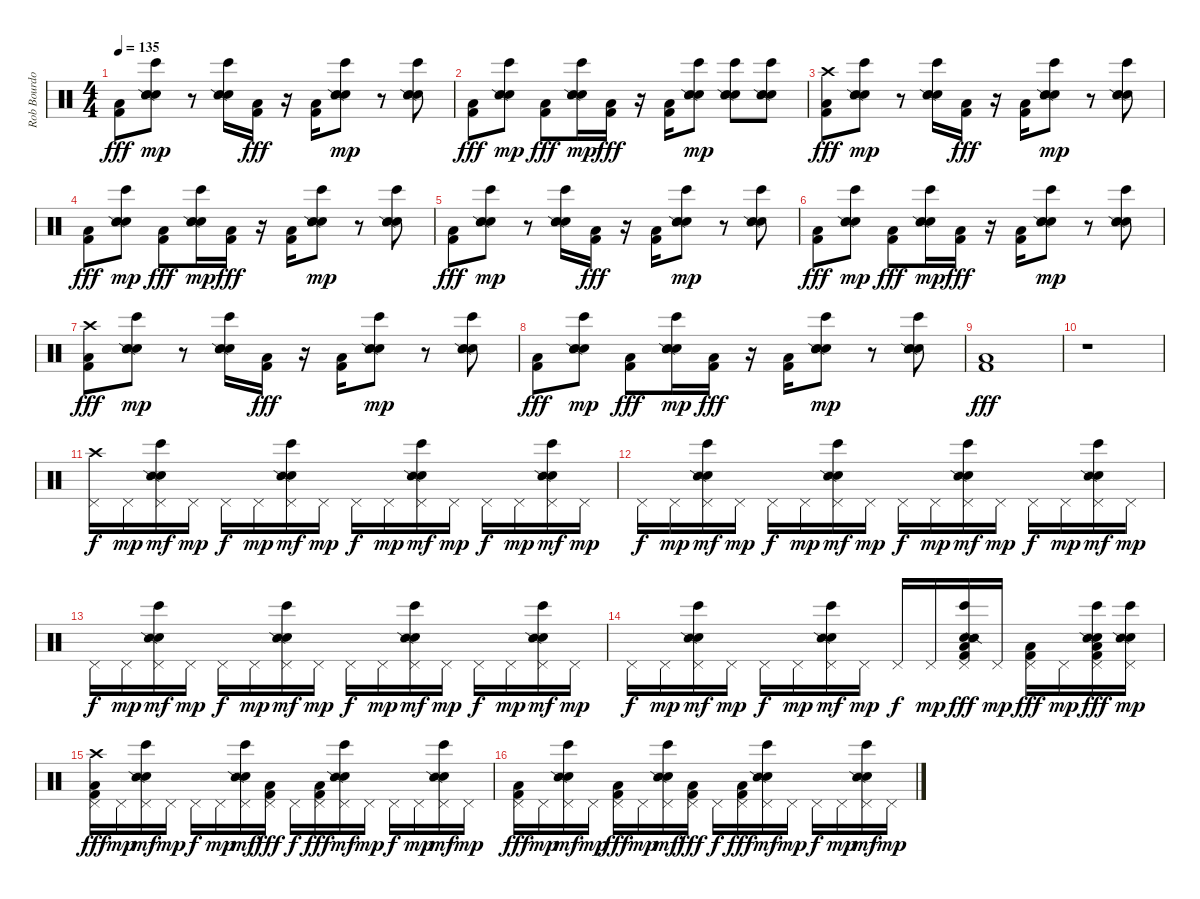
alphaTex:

\track ("Rob Bourdon - Beats & Drums" "Rob Bourdo") {instrument percussion}
\staff {score}
\articulation defaults
\ts (4 4)
\tempo 135
\clef neutral
\ks c
("Low Floor Tom (hit)" "Kick (hit) 2").8{dy fff} ("Bongo High (hit)" "Electric Snare (hit)" "Snare (side stick) 2" "Hand Clap (hit)").8{dy mp} r.8 ("Bongo High (hit)" "Electric Snare (hit)" "Snare (side stick) 2" "Hand Clap (hit)").16 ("Low Floor Tom (hit)" "Kick (hit) 2").16{dy fff} r.16 ("Low Floor Tom (hit)" "Kick (hit) 2").16 ("Bongo High (hit)" "Electric Snare (hit)" "Snare (side stick) 2" "Hand Clap (hit)").8{dy mp} r.8 ("Bongo High (hit)" "Electric Snare (hit)" "Snare (side stick) 2" "Hand Clap (hit)").8 |
("Low Floor Tom (hit)" "Kick (hit) 2").8{dy fff} ("Bongo High (hit)" "Electric Snare (hit)" "Snare (side stick) 2" "Hand Clap (hit)").8{dy mp} ("Low Floor Tom (hit)" "Kick (hit) 2").8{dy fff} ("Bongo High (hit)" "Electric Snare (hit)" "Snare (side stick) 2" "Hand Clap (hit)").16{dy mp} ("Low Floor Tom (hit)" "Kick (hit) 2").16{dy fff} r.16 ("Low Floor Tom (hit)" "Kick (hit) 2").16 ("Bongo High (hit)" "Electric Snare (hit)" "Snare (side stick) 2" "Hand Clap (hit)").8{dy mp} ("Bongo High (hit)" "Electric Snare (hit)" "Snare (side stick) 2" "Hand Clap (hit)").8 ("Bongo High (hit)" "Electric Snare (hit)" "Snare (side stick) 2" "Hand Clap (hit)").8 |
("Low Floor Tom (hit)" "Crash high (hit)" "Kick (hit) 2").8{dy fff} ("Bongo High (hit)" "Electric Snare (hit)" "Snare (side stick) 2" "Hand Clap (hit)").8{dy mp} r.8 ("Bongo High (hit)" "Electric Snare (hit)" "Snare (side stick) 2" "Hand Clap (hit)").16 ("Low Floor Tom (hit)" "Kick (hit) 2").16{dy fff} r.16 ("Low Floor Tom (hit)" "Kick (hit) 2").16 ("Bongo High (hit)" "Electric Snare (hit)" "Snare (side stick) 2" "Hand Clap (hit)").8{dy mp} r.8 ("Bongo High (hit)" "Electric Snare (hit)" "Snare (side stick) 2" "Hand Clap (hit)").8 |
("Low Floor Tom (hit)" "Kick (hit) 2").8{dy fff} ("Bongo High (hit)" "Electric Snare (hit)" "Snare (side stick) 2" "Hand Clap (hit)").8{dy mp} ("Low Floor Tom (hit)" "Kick (hit) 2").8{dy fff} ("Bongo High (hit)" "Electric Snare (hit)" "Snare (side stick) 2" "Hand Clap (hit)").16{dy mp} ("Low Floor Tom (hit)" "Kick (hit) 2").16{dy fff} r.16 ("Low Floor Tom (hit)" "Kick (hit) 2").16 ("Bongo High (hit)" "Electric Snare (hit)" "Snare (side stick) 2" "Hand Clap (hit)").8{dy mp} r.8 ("Bongo High (hit)" "Electric Snare (hit)" "Snare (side stick) 2" "Hand Clap (hit)").8 |
("Low Floor Tom (hit)" "Kick (hit) 2").8{dy fff} ("Bongo High (hit)" "Electric Snare (hit)" "Snare (side stick) 2" "Hand Clap (hit)").8{dy mp} r.8 ("Bongo High (hit)" "Electric Snare (hit)" "Snare (side stick) 2" "Hand Clap (hit)").16 ("Low Floor Tom (hit)" "Kick (hit) 2").16{dy fff} r.16 ("Low Floor Tom (hit)" "Kick (hit) 2").16 ("Bongo High (hit)" "Electric Snare (hit)" "Snare (side stick) 2" "Hand Clap (hit)").8{dy mp} r.8 ("Bongo High (hit)" "Electric Snare (hit)" "Snare (side stick) 2" "Hand Clap (hit)").8 |
("Low Floor Tom (hit)" "Kick (hit) 2").8{dy fff} ("Bongo High (hit)" "Electric Snare (hit)" "Snare (side stick) 2" "Hand Clap (hit)").8{dy mp} ("Low Floor Tom (hit)" "Kick (hit) 2").8{dy fff} ("Bongo High (hit)" "Electric Snare (hit)" "Snare (side stick) 2" "Hand Clap (hit)").16{dy mp} ("Low Floor Tom (hit)" "Kick (hit) 2").16{dy fff} r.16 ("Low Floor Tom (hit)" "Kick (hit) 2").16 ("Bongo High (hit)" "Electric Snare (hit)" "Snare (side stick) 2" "Hand Clap (hit)").8{dy mp} r.8 ("Bongo High (hit)" "Electric Snare (hit)" "Snare (side stick) 2" "Hand Clap (hit)").8 |
("Low Floor Tom (hit)" "Crash high (hit)" "Kick (hit) 2").8{dy fff} ("Bongo High (hit)" "Electric Snare (hit)" "Snare (side stick) 2" "Hand Clap (hit)").8{dy mp} r.8 ("Bongo High (hit)" "Electric Snare (hit)" "Snare (side stick) 2" "Hand Clap (hit)").16 ("Low Floor Tom (hit)" "Kick (hit) 2").16{dy fff} r.16 ("Low Floor Tom (hit)" "Kick (hit) 2").16 ("Bongo High (hit)" "Electric Snare (hit)" "Snare (side stick) 2" "Hand Clap (hit)").8{dy mp} r.8 ("Bongo High (hit)" "Electric Snare (hit)" "Snare (side stick) 2" "Hand Clap (hit)").8 |
("Low Floor Tom (hit)" "Kick (hit) 2").8{dy fff} ("Bongo High (hit)" "Electric Snare (hit)" "Snare (side stick) 2" "Hand Clap (hit)").8{dy mp} ("Low Floor Tom (hit)" "Kick (hit) 2").8{dy fff} ("Bongo High (hit)" "Electric Snare (hit)" "Snare (side stick) 2" "Hand Clap (hit)").16{dy mp} ("Low Floor Tom (hit)" "Kick (hit) 2").16{dy fff} r.16 ("Low Floor Tom (hit)" "Kick (hit) 2").16 ("Bongo High (hit)" "Electric Snare (hit)" "Snare (side stick) 2" "Hand Clap (hit)").8{dy mp} r.8 ("Bongo High (hit)" "Electric Snare (hit)" "Snare (side stick) 2" "Hand Clap (hit)").8 |
("Low Floor Tom (hit)" "Kick (hit) 2").1{dy fff} |
r.1 |
("Crash high (hit)" "Pedal Hi-Hat (hit)").16{dy f} "Pedal Hi-Hat (hit)".16{dy mp} ("Bongo High (hit)" "Electric Snare (hit)" "Snare (side stick) 2" "Pedal Hi-Hat (hit)").16{dy mf} "Pedal Hi-Hat (hit)".16{dy mp} "Pedal Hi-Hat (hit)".16{dy f} "Pedal Hi-Hat (hit)".16{dy mp} ("Bongo High (hit)" "Electric Snare (hit)" "Snare (side stick) 2" "Pedal Hi-Hat (hit)").16{dy mf} "Pedal Hi-Hat (hit)".16{dy mp} "Pedal Hi-Hat (hit)".16{dy f} "Pedal Hi-Hat (hit)".16{dy mp} ("Bongo High (hit)" "Electric Snare (hit)" "Snare (side stick) 2" "Pedal Hi-Hat (hit)").16{dy mf} "Pedal Hi-Hat (hit)".16{dy mp} "Pedal Hi-Hat (hit)".16{dy f} "Pedal Hi-Hat (hit)".16{dy mp} ("Bongo High (hit)" "Electric Snare (hit)" "Snare (side stick) 2" "Pedal Hi-Hat (hit)").16{dy mf} "Pedal Hi-Hat (hit)".16{dy mp} |
"Pedal Hi-Hat (hit)".16{dy f} "Pedal Hi-Hat (hit)".16{dy mp} ("Bongo High (hit)" "Electric Snare (hit)" "Snare (side stick) 2" "Pedal Hi-Hat (hit)").16{dy mf} "Pedal Hi-Hat (hit)".16{dy mp} "Pedal Hi-Hat (hit)".16{dy f} "Pedal Hi-Hat (hit)".16{dy mp} ("Bongo High (hit)" "Electric Snare (hit)" "Snare (side stick) 2" "Pedal Hi-Hat (hit)").16{dy mf} "Pedal Hi-Hat (hit)".16{dy mp} "Pedal Hi-Hat (hit)".16{dy f} "Pedal Hi-Hat (hit)".16{dy mp} ("Bongo High (hit)" "Electric Snare (hit)" "Snare (side stick) 2" "Pedal Hi-Hat (hit)").16{dy mf} "Pedal Hi-Hat (hit)".16{dy mp} "Pedal Hi-Hat (hit)".16{dy f} "Pedal Hi-Hat (hit)".16{dy mp} ("Bongo High (hit)" "Electric Snare (hit)" "Snare (side stick) 2" "Pedal Hi-Hat (hit)").16{dy mf} "Pedal Hi-Hat (hit)".16{dy mp} |
"Pedal Hi-Hat (hit)".16{dy f} "Pedal Hi-Hat (hit)".16{dy mp} ("Bongo High (hit)" "Electric Snare (hit)" "Snare (side stick) 2" "Pedal Hi-Hat (hit)").16{dy mf} "Pedal Hi-Hat (hit)".16{dy mp} "Pedal Hi-Hat (hit)".16{dy f} "Pedal Hi-Hat (hit)".16{dy mp} ("Bongo High (hit)" "Electric Snare (hit)" "Snare (side stick) 2" "Pedal Hi-Hat (hit)").16{dy mf} "Pedal Hi-Hat (hit)".16{dy mp} "Pedal Hi-Hat (hit)".16{dy f} "Pedal Hi-Hat (hit)".16{dy mp} ("Bongo High (hit)" "Electric Snare (hit)" "Snare (side stick) 2" "Pedal Hi-Hat (hit)").16{dy mf} "Pedal Hi-Hat (hit)".16{dy mp} "Pedal Hi-Hat (hit)".16{dy f} "Pedal Hi-Hat (hit)".16{dy mp} ("Bongo High (hit)" "Electric Snare (hit)" "Snare (side stick) 2" "Pedal Hi-Hat (hit)").16{dy mf} "Pedal Hi-Hat (hit)".16{dy mp} |
"Pedal Hi-Hat (hit)".16{dy f} "Pedal Hi-Hat (hit)".16{dy mp} ("Bongo High (hit)" "Electric Snare (hit)" "Snare (side stick) 2" "Pedal Hi-Hat (hit)").16{dy mf} "Pedal Hi-Hat (hit)".16{dy mp} "Pedal Hi-Hat (hit)".16{dy f} "Pedal Hi-Hat (hit)".16{dy mp} ("Bongo High (hit)" "Electric Snare (hit)" "Snare (side stick) 2" "Pedal Hi-Hat (hit)").16{dy mf} "Pedal Hi-Hat (hit)".16{dy mp} "Pedal Hi-Hat (hit)".16{dy f} "Pedal Hi-Hat (hit)".16{dy mp} ("Low Floor Tom (hit)" "Bongo High (hit)" "Electric Snare (hit)" "Snare (side stick) 2" "Pedal Hi-Hat (hit)" "Kick (hit) 2").16{dy fff} "Pedal Hi-Hat (hit)".16{dy mp} ("Low Floor Tom (hit)" "Pedal Hi-Hat (hit)" "Kick (hit) 2").16{dy fff} "Pedal Hi-Hat (hit)".16{dy mp} ("Low Floor Tom (hit)" "Bongo High (hit)" "Electric Snare (hit)" "Snare (side stick) 2" "Pedal Hi-Hat (hit)" "Kick (hit) 2").16{dy fff} ("Bongo High (hit)" "Electric Snare (hit)" "Snare (side stick) 2" "Pedal Hi-Hat (hit)").16{dy mp} |
("Crash high (hit)" "Low Floor Tom (hit)" "Pedal Hi-Hat (hit)" "Kick (hit) 2").16{dy fff} "Pedal Hi-Hat (hit)".16{dy mp} ("Bongo High (hit)" "Electric Snare (hit)" "Snare (side stick) 2" "Pedal Hi-Hat (hit)").16{dy mf} "Pedal Hi-Hat (hit)".16{dy mp} "Pedal Hi-Hat (hit)".16{dy f} "Pedal Hi-Hat (hit)".16{dy mp} ("Bongo High (hit)" "Electric Snare (hit)" "Snare (side stick) 2" "Pedal Hi-Hat (hit)").16{dy mf} ("Low Floor Tom (hit)" "Pedal Hi-Hat (hit)" "Kick (hit) 2").16{dy fff} "Pedal Hi-Hat (hit)".16{dy f} ("Low Floor Tom (hit)" "Pedal Hi-Hat (hit)" "Kick (hit) 2").16{dy fff} ("Bongo High (hit)" "Electric Snare (hit)" "Snare (side stick) 2" "Pedal Hi-Hat (hit)").16{dy mf} "Pedal Hi-Hat (hit)".16{dy mp} "Pedal Hi-Hat (hit)".16{dy f} "Pedal Hi-Hat (hit)".16{dy mp} ("Bongo High (hit)" "Electric Snare (hit)" "Snare (side stick) 2" "Pedal Hi-Hat (hit)").16{dy mf} "Pedal Hi-Hat (hit)".16{dy mp} |
("Low Floor Tom (hit)" "Pedal Hi-Hat (hit)" "Kick (hit) 2").16{dy fff} "Pedal Hi-Hat (hit)".16{dy mp} ("Bongo High (hit)" "Electric Snare (hit)" "Snare (side stick) 2" "Pedal Hi-Hat (hit)").16{dy mf} "Pedal Hi-Hat (hit)".16{dy mp} ("Low Floor Tom (hit)" "Pedal Hi-Hat (hit)" "Kick (hit) 2").16{dy fff} "Pedal Hi-Hat (hit)".16{dy mp} ("Bongo High (hit)" "Electric Snare (hit)" "Snare (side stick) 2" "Pedal Hi-Hat (hit)").16{dy mf} ("Low Floor Tom (hit)" "Pedal Hi-Hat (hit)" "Kick (hit) 2").16{dy fff} "Pedal Hi-Hat (hit)".16{dy f} ("Low Floor Tom (hit)" "Pedal Hi-Hat (hit)" "Kick (hit) 2").16{dy fff} ("Bongo High (hit)" "Electric Snare (hit)" "Snare (side stick) 2" "Pedal Hi-Hat (hit)").16{dy mf} "Pedal Hi-Hat (hit)".16{dy mp} "Pedal Hi-Hat (hit)".16{dy f} "Pedal Hi-Hat (hit)".16{dy mp} ("Bongo High (hit)" "Electric Snare (hit)" "Snare (side stick) 2" "Pedal Hi-Hat (hit)").16{dy mf} "Pedal Hi-Hat (hit)".16{dy mp}
